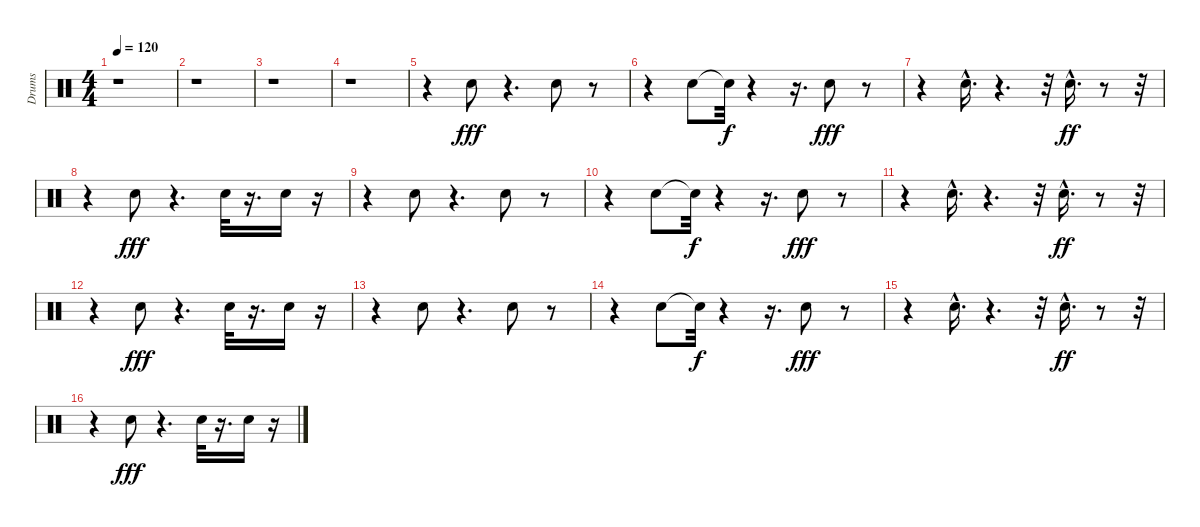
\track ("Drums" "Drums") {instrument percussion}
\staff {score}
\articulation defaults
\ts (4 4)
\tempo 120
\clef neutral
\ks c
r.1{dy fff} |
r.1 |
r.1 |
r.1 |
r.4 "Electric Snare (hit)".8 r.4{d} "Electric Snare (hit)".8 r.8 |
r.4 "Electric Snare (hit)".8 "Snare (hit)"{t}.32{dy f} r.4 r.16{d} "Electric Snare (hit)".8{dy fff} r.8 |
r.4 "Electric Snare (hit)"{hac}.16{d} r.4{d} r.32 "Electric Snare (hit)"{hac}.16{d dy ff} r.8 r.32 |
r.4 "Electric Snare (hit)".8{dy fff} r.4{d} "Electric Snare (hit)".32 r.16{d} "Electric Snare (hit)".16 r.16 |
r.4 "Electric Snare (hit)".8 r.4{d} "Electric Snare (hit)".8 r.8 |
r.4 "Electric Snare (hit)".8 "Snare (hit)"{t}.32{dy f} r.4 r.16{d} "Electric Snare (hit)".8{dy fff} r.8 |
r.4 "Electric Snare (hit)"{hac}.16{d} r.4{d} r.32 "Electric Snare (hit)"{hac}.16{d dy ff} r.8 r.32 |
r.4 "Electric Snare (hit)".8{dy fff} r.4{d} "Electric Snare (hit)".32 r.16{d} "Electric Snare (hit)".16 r.16 |
r.4 "Electric Snare (hit)".8 r.4{d} "Electric Snare (hit)".8 r.8 |
r.4 "Electric Snare (hit)".8 "Snare (hit)"{t}.32{dy f} r.4 r.16{d} "Electric Snare (hit)".8{dy fff} r.8 |
r.4 "Electric Snare (hit)"{hac}.16{d} r.4{d} r.32 "Electric Snare (hit)"{hac}.16{d dy ff} r.8 r.32 |
r.4 "Electric Snare (hit)".8{dy fff} r.4{d} "Electric Snare (hit)".32 r.16{d} "Electric Snare (hit)".16 r.16
